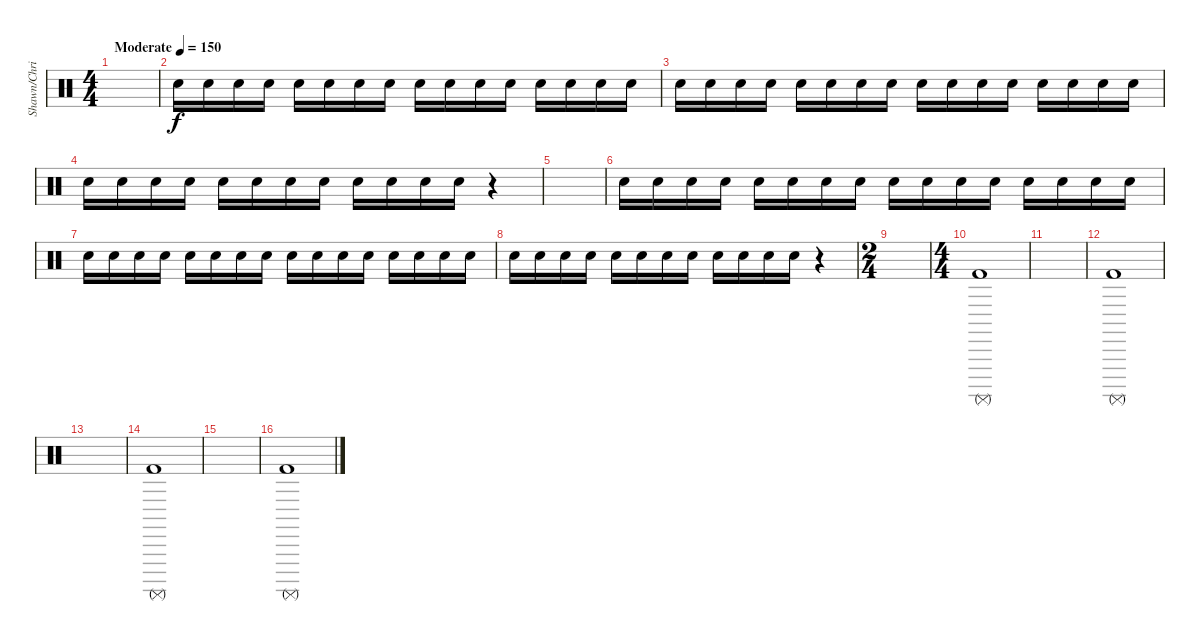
\track ("Shawn/Chris" "Shawn/Chri") {instrument percussion}
\staff {score}
\articulation defaults
\ts (4 4)
\tempo (150 "Moderate")
\clef neutral
\ks c
|
"Snare (hit) 2".16 "Snare (hit) 2".16 "Snare (hit) 2".16 "Snare (hit) 2".16 "Snare (hit) 2".16 "Snare (hit) 2".16 "Snare (hit) 2".16 "Snare (hit) 2".16 "Snare (hit) 2".16 "Snare (hit) 2".16 "Snare (hit) 2".16 "Snare (hit) 2".16 "Snare (hit) 2".16 "Snare (hit) 2".16 "Snare (hit) 2".16 "Snare (hit) 2".16 |
"Snare (hit) 2".16 "Snare (hit) 2".16 "Snare (hit) 2".16 "Snare (hit) 2".16 "Snare (hit) 2".16 "Snare (hit) 2".16 "Snare (hit) 2".16 "Snare (hit) 2".16 "Snare (hit) 2".16 "Snare (hit) 2".16 "Snare (hit) 2".16 "Snare (hit) 2".16 "Snare (hit) 2".16 "Snare (hit) 2".16 "Snare (hit) 2".16 "Snare (hit) 2".16 |
"Snare (hit) 2".16 "Snare (hit) 2".16 "Snare (hit) 2".16 "Snare (hit) 2".16 "Snare (hit) 2".16 "Snare (hit) 2".16 "Snare (hit) 2".16 "Snare (hit) 2".16 "Snare (hit) 2".16 "Snare (hit) 2".16 "Snare (hit) 2".16 "Snare (hit) 2".16 r.4 |
|
"Snare (hit) 2".16 "Snare (hit) 2".16 "Snare (hit) 2".16 "Snare (hit) 2".16 "Snare (hit) 2".16 "Snare (hit) 2".16 "Snare (hit) 2".16 "Snare (hit) 2".16 "Snare (hit) 2".16 "Snare (hit) 2".16 "Snare (hit) 2".16 "Snare (hit) 2".16 "Snare (hit) 2".16 "Snare (hit) 2".16 "Snare (hit) 2".16 "Snare (hit) 2".16 |
"Snare (hit) 2".16 "Snare (hit) 2".16 "Snare (hit) 2".16 "Snare (hit) 2".16 "Snare (hit) 2".16 "Snare (hit) 2".16 "Snare (hit) 2".16 "Snare (hit) 2".16 "Snare (hit) 2".16 "Snare (hit) 2".16 "Snare (hit) 2".16 "Snare (hit) 2".16 "Snare (hit) 2".16 "Snare (hit) 2".16 "Snare (hit) 2".16 "Snare (hit) 2".16 |
"Snare (hit) 2".16 "Snare (hit) 2".16 "Snare (hit) 2".16 "Snare (hit) 2".16 "Snare (hit) 2".16 "Snare (hit) 2".16 "Snare (hit) 2".16 "Snare (hit) 2".16 "Snare (hit) 2".16 "Snare (hit) 2".16 "Snare (hit) 2".16 "Snare (hit) 2".16 r.4 |
\ts (2 4)
|
\ts (4 4)
("Surdo (mute)" "Kick (hit) 2").1 |
|
("Surdo (mute)" "Kick (hit) 2").1 |
|
("Surdo (mute)" "Kick (hit) 2").1 |
|
("Surdo (mute)" "Kick (hit) 2").1
